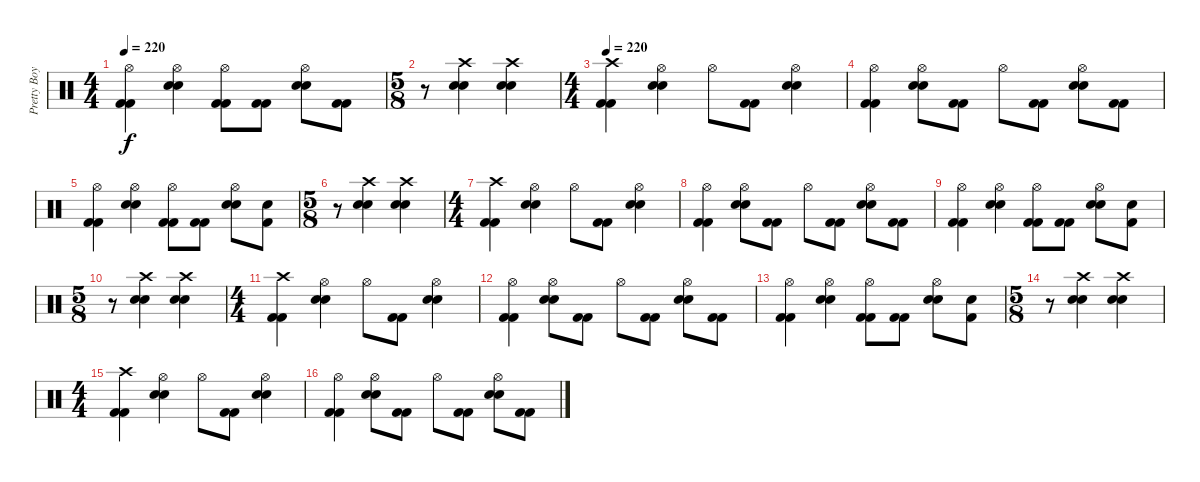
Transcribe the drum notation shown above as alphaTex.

\track ("Pretty Boy Geoff (Lars Drums)" "Pretty Boy") {instrument percussion}
\staff {score}
\articulation defaults
\ts (4 4)
\tempo 220
\clef neutral
\ks c
("Hi-Hat (open)" "Kick (hit) 2" "Kick (hit) 2").4{dy f} ("Hi-Hat (open)" "Electric Snare (hit)" "Electric Snare (hit)").4 ("Hi-Hat (open)" "Kick (hit) 2" "Kick (hit) 2").8 ("Kick (hit) 2" "Kick (hit) 2").8 ("Hi-Hat (open)" "Electric Snare (hit)" "Electric Snare (hit)").8 ("Kick (hit) 2" "Kick (hit) 2").8 |
\ts (5 8)
r.8 ("Crash high (hit)" "Electric Snare (hit)" "Electric Snare (hit)").4 ("Crash high (hit)" "Electric Snare (hit)" "Electric Snare (hit)").4 |
\ts (4 4)
\tempo 220
("Crash high (hit)" "Kick (hit) 2" "Kick (hit) 2").4 ("Hi-Hat (open)" "Electric Snare (hit)" "Electric Snare (hit)").4 "Hi-Hat (open)".8 ("Kick (hit) 2" "Kick (hit) 2").8 ("Hi-Hat (open)" "Electric Snare (hit)" "Electric Snare (hit)").4 |
("Hi-Hat (open)" "Kick (hit) 2" "Kick (hit) 2").4 ("Hi-Hat (open)" "Electric Snare (hit)" "Electric Snare (hit)").8 ("Kick (hit) 2" "Kick (hit) 2").8 "Hi-Hat (open)".8 ("Kick (hit) 2" "Kick (hit) 2").8 ("Hi-Hat (open)" "Electric Snare (hit)" "Electric Snare (hit)").8 ("Kick (hit) 2" "Kick (hit) 2").8 |
("Hi-Hat (open)" "Kick (hit) 2" "Kick (hit) 2").4 ("Hi-Hat (open)" "Electric Snare (hit)" "Electric Snare (hit)").4 ("Hi-Hat (open)" "Kick (hit) 2" "Kick (hit) 2").8 ("Kick (hit) 2" "Kick (hit) 2").8 ("Hi-Hat (open)" "Electric Snare (hit)" "Electric Snare (hit)").8 ("Kick (hit) 2" "Snare (hit)").8 |
\ts (5 8)
r.8 ("Crash high (hit)" "Electric Snare (hit)" "Electric Snare (hit)").4 ("Crash high (hit)" "Electric Snare (hit)" "Electric Snare (hit)").4 |
\ts (4 4)
("Crash high (hit)" "Kick (hit) 2" "Kick (hit) 2").4 ("Hi-Hat (open)" "Electric Snare (hit)" "Electric Snare (hit)").4 "Hi-Hat (open)".8 ("Kick (hit) 2" "Kick (hit) 2").8 ("Hi-Hat (open)" "Electric Snare (hit)" "Electric Snare (hit)").4 |
("Hi-Hat (open)" "Kick (hit) 2" "Kick (hit) 2").4 ("Hi-Hat (open)" "Electric Snare (hit)" "Electric Snare (hit)").8 ("Kick (hit) 2" "Kick (hit) 2").8 "Hi-Hat (open)".8 ("Kick (hit) 2" "Kick (hit) 2").8 ("Hi-Hat (open)" "Electric Snare (hit)" "Electric Snare (hit)").8 ("Kick (hit) 2" "Kick (hit) 2").8 |
("Hi-Hat (open)" "Kick (hit) 2" "Kick (hit) 2").4 ("Hi-Hat (open)" "Electric Snare (hit)" "Electric Snare (hit)").4 ("Hi-Hat (open)" "Kick (hit) 2" "Kick (hit) 2").8 ("Kick (hit) 2" "Kick (hit) 2").8 ("Hi-Hat (open)" "Electric Snare (hit)" "Electric Snare (hit)").8 ("Kick (hit) 2" "Snare (hit)").8 |
\ts (5 8)
r.8 ("Crash high (hit)" "Electric Snare (hit)" "Electric Snare (hit)").4 ("Crash high (hit)" "Electric Snare (hit)" "Electric Snare (hit)").4 |
\ts (4 4)
("Crash high (hit)" "Kick (hit) 2" "Kick (hit) 2").4 ("Hi-Hat (open)" "Electric Snare (hit)" "Electric Snare (hit)").4 "Hi-Hat (open)".8 ("Kick (hit) 2" "Kick (hit) 2").8 ("Hi-Hat (open)" "Electric Snare (hit)" "Electric Snare (hit)").4 |
("Hi-Hat (open)" "Kick (hit) 2" "Kick (hit) 2").4 ("Hi-Hat (open)" "Electric Snare (hit)" "Electric Snare (hit)").8 ("Kick (hit) 2" "Kick (hit) 2").8 "Hi-Hat (open)".8 ("Kick (hit) 2" "Kick (hit) 2").8 ("Hi-Hat (open)" "Electric Snare (hit)" "Electric Snare (hit)").8 ("Kick (hit) 2" "Kick (hit) 2").8 |
("Hi-Hat (open)" "Kick (hit) 2" "Kick (hit) 2").4 ("Hi-Hat (open)" "Electric Snare (hit)" "Electric Snare (hit)").4 ("Hi-Hat (open)" "Kick (hit) 2" "Kick (hit) 2").8 ("Kick (hit) 2" "Kick (hit) 2").8 ("Hi-Hat (open)" "Electric Snare (hit)" "Electric Snare (hit)").8 ("Kick (hit) 2" "Snare (hit)").8 |
\ts (5 8)
r.8 ("Crash high (hit)" "Electric Snare (hit)" "Electric Snare (hit)").4 ("Crash high (hit)" "Electric Snare (hit)" "Electric Snare (hit)").4 |
\ts (4 4)
("Crash high (hit)" "Kick (hit) 2" "Kick (hit) 2").4 ("Hi-Hat (open)" "Electric Snare (hit)" "Electric Snare (hit)").4 "Hi-Hat (open)".8 ("Kick (hit) 2" "Kick (hit) 2").8 ("Hi-Hat (open)" "Electric Snare (hit)" "Electric Snare (hit)").4 |
("Hi-Hat (open)" "Kick (hit) 2" "Kick (hit) 2").4 ("Hi-Hat (open)" "Electric Snare (hit)" "Electric Snare (hit)").8 ("Kick (hit) 2" "Kick (hit) 2").8 "Hi-Hat (open)".8 ("Kick (hit) 2" "Kick (hit) 2").8 ("Hi-Hat (open)" "Electric Snare (hit)" "Electric Snare (hit)").8 ("Kick (hit) 2" "Kick (hit) 2").8
